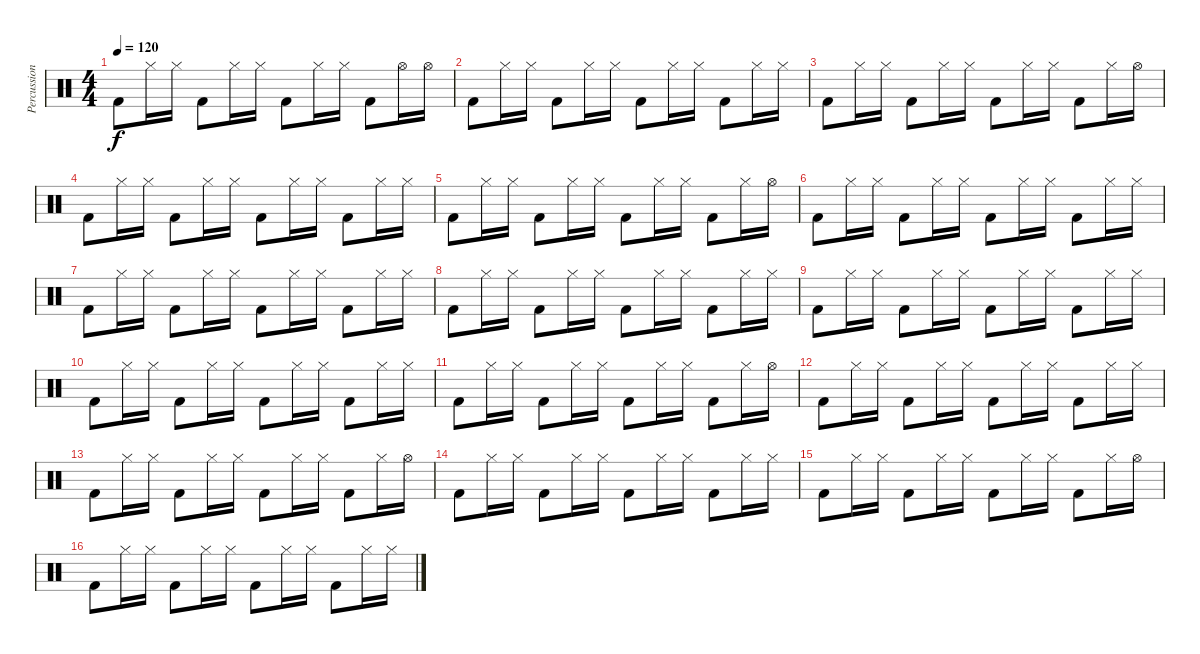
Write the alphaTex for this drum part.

\track ("Percussion" "Percussion") {instrument percussion}
\staff {score}
\articulation defaults
\ts (4 4)
\tempo 120
\clef neutral
\ks c "Kick (hit) 2".8{dy f} "Hi-Hat (closed)".16 "Hi-Hat (closed)".16 "Kick (hit) 2".8 "Hi-Hat (closed)".16 "Hi-Hat (closed)".16 "Kick (hit) 2".8 "Hi-Hat (closed)".16 "Hi-Hat (closed)".16 "Kick (hit) 2".8 "Hi-Hat (open)".16 "Hi-Hat (open)".16
|
"Kick (hit) 2".8 "Hi-Hat (closed)".16 "Hi-Hat (closed)".16 "Kick (hit) 2".8 "Hi-Hat (closed)".16 "Hi-Hat (closed)".16 "Kick (hit) 2".8 "Hi-Hat (closed)".16 "Hi-Hat (closed)".16 "Kick (hit) 2".8 "Hi-Hat (closed)".16 "Hi-Hat (closed)".16 |
"Kick (hit) 2".8 "Hi-Hat (closed)".16 "Hi-Hat (closed)".16 "Kick (hit) 2".8 "Hi-Hat (closed)".16 "Hi-Hat (closed)".16 "Kick (hit) 2".8 "Hi-Hat (closed)".16 "Hi-Hat (closed)".16 "Kick (hit) 2".8 "Hi-Hat (closed)".16 "Hi-Hat (open)".16 |
"Kick (hit) 2".8 "Hi-Hat (closed)".16 "Hi-Hat (closed)".16 "Kick (hit) 2".8 "Hi-Hat (closed)".16 "Hi-Hat (closed)".16 "Kick (hit) 2".8 "Hi-Hat (closed)".16 "Hi-Hat (closed)".16 "Kick (hit) 2".8 "Hi-Hat (closed)".16 "Hi-Hat (closed)".16 |
"Kick (hit) 2".8 "Hi-Hat (closed)".16 "Hi-Hat (closed)".16 "Kick (hit) 2".8 "Hi-Hat (closed)".16 "Hi-Hat (closed)".16 "Kick (hit) 2".8 "Hi-Hat (closed)".16 "Hi-Hat (closed)".16 "Kick (hit) 2".8 "Hi-Hat (closed)".16 "Hi-Hat (open)".16 |
"Kick (hit) 2".8 "Hi-Hat (closed)".16 "Hi-Hat (closed)".16 "Kick (hit) 2".8 "Hi-Hat (closed)".16 "Hi-Hat (closed)".16 "Kick (hit) 2".8 "Hi-Hat (closed)".16 "Hi-Hat (closed)".16 "Kick (hit) 2".8 "Hi-Hat (closed)".16 "Hi-Hat (closed)".16 |
"Kick (hit) 2".8 "Hi-Hat (closed)".16 "Hi-Hat (closed)".16 "Kick (hit) 2".8 "Hi-Hat (closed)".16 "Hi-Hat (closed)".16 "Kick (hit) 2".8 "Hi-Hat (closed)".16 "Hi-Hat (closed)".16 "Kick (hit) 2".8 "Hi-Hat (closed)".16 "Hi-Hat (closed)".16 |
"Kick (hit) 2".8 "Hi-Hat (closed)".16 "Hi-Hat (closed)".16 "Kick (hit) 2".8 "Hi-Hat (closed)".16 "Hi-Hat (closed)".16 "Kick (hit) 2".8 "Hi-Hat (closed)".16 "Hi-Hat (closed)".16 "Kick (hit) 2".8 "Hi-Hat (closed)".16 "Hi-Hat (closed)".16 |
"Kick (hit) 2".8 "Hi-Hat (closed)".16 "Hi-Hat (closed)".16 "Kick (hit) 2".8 "Hi-Hat (closed)".16 "Hi-Hat (closed)".16 "Kick (hit) 2".8 "Hi-Hat (closed)".16 "Hi-Hat (closed)".16 "Kick (hit) 2".8 "Hi-Hat (closed)".16 "Hi-Hat (closed)".16 |
"Kick (hit) 2".8 "Hi-Hat (closed)".16 "Hi-Hat (closed)".16 "Kick (hit) 2".8 "Hi-Hat (closed)".16 "Hi-Hat (closed)".16 "Kick (hit) 2".8 "Hi-Hat (closed)".16 "Hi-Hat (closed)".16 "Kick (hit) 2".8 "Hi-Hat (closed)".16 "Hi-Hat (closed)".16 |
"Kick (hit) 2".8 "Hi-Hat (closed)".16 "Hi-Hat (closed)".16 "Kick (hit) 2".8 "Hi-Hat (closed)".16 "Hi-Hat (closed)".16 "Kick (hit) 2".8 "Hi-Hat (closed)".16 "Hi-Hat (closed)".16 "Kick (hit) 2".8 "Hi-Hat (closed)".16 "Hi-Hat (open)".16 |
"Kick (hit) 2".8 "Hi-Hat (closed)".16 "Hi-Hat (closed)".16 "Kick (hit) 2".8 "Hi-Hat (closed)".16 "Hi-Hat (closed)".16 "Kick (hit) 2".8 "Hi-Hat (closed)".16 "Hi-Hat (closed)".16 "Kick (hit) 2".8 "Hi-Hat (closed)".16 "Hi-Hat (closed)".16 |
"Kick (hit) 2".8 "Hi-Hat (closed)".16 "Hi-Hat (closed)".16 "Kick (hit) 2".8 "Hi-Hat (closed)".16 "Hi-Hat (closed)".16 "Kick (hit) 2".8 "Hi-Hat (closed)".16 "Hi-Hat (closed)".16 "Kick (hit) 2".8 "Hi-Hat (closed)".16 "Hi-Hat (open)".16 |
"Kick (hit) 2".8 "Hi-Hat (closed)".16 "Hi-Hat (closed)".16 "Kick (hit) 2".8 "Hi-Hat (closed)".16 "Hi-Hat (closed)".16 "Kick (hit) 2".8 "Hi-Hat (closed)".16 "Hi-Hat (closed)".16 "Kick (hit) 2".8 "Hi-Hat (closed)".16 "Hi-Hat (closed)".16 |
"Kick (hit) 2".8 "Hi-Hat (closed)".16 "Hi-Hat (closed)".16 "Kick (hit) 2".8 "Hi-Hat (closed)".16 "Hi-Hat (closed)".16 "Kick (hit) 2".8 "Hi-Hat (closed)".16 "Hi-Hat (closed)".16 "Kick (hit) 2".8 "Hi-Hat (closed)".16 "Hi-Hat (open)".16 |
"Kick (hit) 2".8 "Hi-Hat (closed)".16 "Hi-Hat (closed)".16 "Kick (hit) 2".8 "Hi-Hat (closed)".16 "Hi-Hat (closed)".16 "Kick (hit) 2".8 "Hi-Hat (closed)".16 "Hi-Hat (closed)".16 "Kick (hit) 2".8 "Hi-Hat (closed)".16 "Hi-Hat (closed)".16
